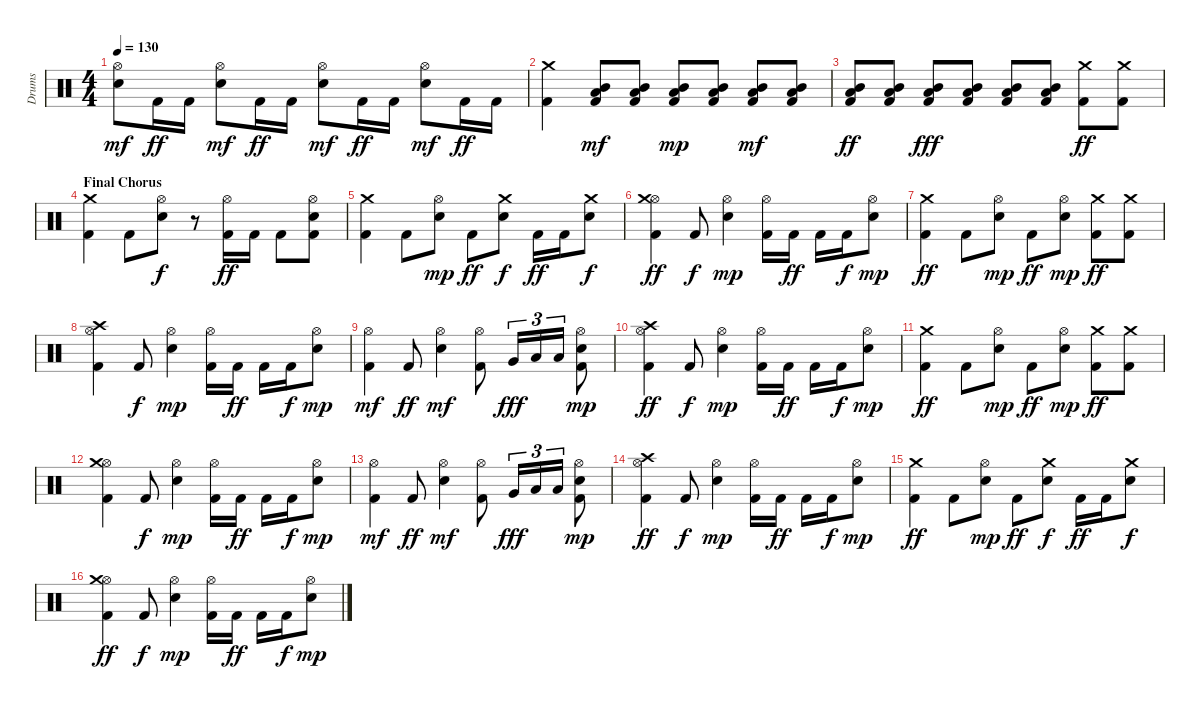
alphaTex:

\track ("Drums" "Drums") {instrument percussion}
\staff {score}
\articulation defaults
\ts (4 4)
\tempo 130
\clef neutral
\ks c
("Hi-Hat (open)" "Snare (hit) 2").8{dy mf} "Kick (hit) 2".16{dy ff} "Kick (hit) 2".16 ("Hi-Hat (open)" "Snare (hit) 2").8{dy mf} "Kick (hit) 2".16{dy ff} "Kick (hit) 2".16 ("Hi-Hat (open)" "Snare (hit) 2").8{dy mf} "Kick (hit) 2".16{dy ff} "Kick (hit) 2".16 ("Hi-Hat (open)" "Snare (hit) 2").8{dy mf} "Kick (hit) 2".16{dy ff} "Kick (hit) 2".16 |
("Kick (hit) 2" "Crash medium (hit)").4 ("Kick (hit) 2" "Mid Tom (hit)" "Low Floor Tom (hit)").8{dy mf} ("Kick (hit) 2" "Mid Tom (hit)" "Low Floor Tom (hit)").8 ("Kick (hit) 2" "Mid Tom (hit)" "Low Floor Tom (hit)").8{dy mp} ("Kick (hit) 2" "Mid Tom (hit)" "Low Floor Tom (hit)").8 ("Kick (hit) 2" "Mid Tom (hit)" "Low Floor Tom (hit)").8{dy mf} ("Kick (hit) 2" "Mid Tom (hit)" "Low Floor Tom (hit)").8 |
("Kick (hit) 2" "Mid Tom (hit)" "Low Floor Tom (hit)").8{dy ff} ("Kick (hit) 2" "Mid Tom (hit)" "Low Floor Tom (hit)").8 ("Kick (hit) 2" "Mid Tom (hit)" "Low Floor Tom (hit)").8{dy fff} ("Kick (hit) 2" "Mid Tom (hit)" "Low Floor Tom (hit)").8 ("Kick (hit) 2" "Mid Tom (hit)" "Low Floor Tom (hit)").8 ("Kick (hit) 2" "Mid Tom (hit)" "Low Floor Tom (hit)").8 ("Kick (hit) 2" "Crash medium (hit)").8{dy ff} ("Kick (hit) 2" "Crash medium (hit)").8 |
\section ("" "Final Chorus")
("Kick (hit) 2" "Crash medium (hit)").4 "Kick (hit) 2".8 ("Hi-Hat (open)" "Snare (hit) 2").8{dy f} r.8 ("Kick (hit) 2" "Hi-Hat (open)").16{dy ff} "Kick (hit) 2".16 "Kick (hit) 2".8 ("Kick (hit) 2" "Hi-Hat (open)" "Snare (hit) 2").8 |
("Kick (hit) 2" "Crash medium (hit)").4 "Kick (hit) 2".8 ("Hi-Hat (open)" "Snare (hit) 2").8{dy mp} "Kick (hit) 2".8{dy ff} ("Snare (hit) 2" "Crash medium (hit)").8{dy f} "Kick (hit) 2".16{dy ff} "Kick (hit) 2".16 ("Snare (hit) 2" "Crash medium (hit)").8{dy f} |
("Kick (hit) 2" "Hi-Hat (open)" "Crash medium (hit)").4{dy ff} "Kick (hit) 2".8{dy f} ("Hi-Hat (open)" "Snare (hit) 2").4{dy mp} ("Kick (hit) 2" "Hi-Hat (open)").16 "Kick (hit) 2".16{dy ff} "Kick (hit) 2".16 "Kick (hit) 2".16{dy f} ("Hi-Hat (open)" "Snare (hit) 2").8{dy mp} |
("Kick (hit) 2" "Crash medium (hit)").4{dy ff} "Kick (hit) 2".8 ("Hi-Hat (open)" "Snare (hit) 2").8{dy mp} "Kick (hit) 2".8{dy ff} ("Hi-Hat (open)" "Snare (hit) 2").8{dy mp} ("Kick (hit) 2" "Crash medium (hit)").8{dy ff} ("Kick (hit) 2" "Crash medium (hit)").8 |
("Kick (hit) 2" "Hi-Hat (open)" "Crash high (hit)").4 "Kick (hit) 2".8{dy f} ("Hi-Hat (open)" "Snare (hit) 2").4{dy mp} ("Kick (hit) 2" "Hi-Hat (open)").16 "Kick (hit) 2".16{dy ff} "Kick (hit) 2".16 "Kick (hit) 2".16{dy f} ("Hi-Hat (open)" "Snare (hit) 2").8{dy mp} |
("Kick (hit) 2" "Hi-Hat (open)").4{dy mf} "Kick (hit) 2".8{dy ff} ("Hi-Hat (open)" "Snare (hit) 2").4{dy mf} ("Kick (hit) 2" "Hi-Hat (open)").8 "Very Low Tom (hit)".16{tu (3 2) dy fff} "Low Floor Tom (hit)".16{tu (3 2)} "Low Floor Tom (hit)".16{tu (3 2)} ("Kick (hit) 2" "Hi-Hat (open)" "Snare (hit) 2").8{dy mp} |
("Kick (hit) 2" "Hi-Hat (open)" "Crash high (hit)").4{dy ff} "Kick (hit) 2".8{dy f} ("Hi-Hat (open)" "Snare (hit) 2").4{dy mp} ("Kick (hit) 2" "Hi-Hat (open)").16 "Kick (hit) 2".16{dy ff} "Kick (hit) 2".16 "Kick (hit) 2".16{dy f} ("Hi-Hat (open)" "Snare (hit) 2").8{dy mp} |
("Kick (hit) 2" "Crash medium (hit)").4{dy ff} "Kick (hit) 2".8 ("Hi-Hat (open)" "Snare (hit) 2").8{dy mp} "Kick (hit) 2".8{dy ff} ("Hi-Hat (open)" "Snare (hit) 2").8{dy mp} ("Kick (hit) 2" "Crash medium (hit)").8{dy ff} ("Kick (hit) 2" "Crash medium (hit)").8 |
("Kick (hit) 2" "Hi-Hat (open)" "Crash medium (hit)").4 "Kick (hit) 2".8{dy f} ("Hi-Hat (open)" "Snare (hit) 2").4{dy mp} ("Kick (hit) 2" "Hi-Hat (open)").16 "Kick (hit) 2".16{dy ff} "Kick (hit) 2".16 "Kick (hit) 2".16{dy f} ("Hi-Hat (open)" "Snare (hit) 2").8{dy mp} |
("Kick (hit) 2" "Hi-Hat (open)").4{dy mf} "Kick (hit) 2".8{dy ff} ("Hi-Hat (open)" "Snare (hit) 2").4{dy mf} ("Kick (hit) 2" "Hi-Hat (open)").8 "Very Low Tom (hit)".16{tu (3 2) dy fff} "Low Floor Tom (hit)".16{tu (3 2)} "Low Floor Tom (hit)".16{tu (3 2)} ("Kick (hit) 2" "Hi-Hat (open)" "Snare (hit) 2").8{dy mp} |
("Kick (hit) 2" "Hi-Hat (open)" "Crash high (hit)").4{dy ff} "Kick (hit) 2".8{dy f} ("Hi-Hat (open)" "Snare (hit) 2").4{dy mp} ("Kick (hit) 2" "Hi-Hat (open)").16 "Kick (hit) 2".16{dy ff} "Kick (hit) 2".16 "Kick (hit) 2".16{dy f} ("Hi-Hat (open)" "Snare (hit) 2").8{dy mp} |
("Kick (hit) 2" "Crash medium (hit)").4{dy ff} "Kick (hit) 2".8 ("Hi-Hat (open)" "Snare (hit) 2").8{dy mp} "Kick (hit) 2".8{dy ff} ("Snare (hit) 2" "Crash medium (hit)").8{dy f} "Kick (hit) 2".16{dy ff} "Kick (hit) 2".16 ("Snare (hit) 2" "Crash medium (hit)").8{dy f} |
("Kick (hit) 2" "Hi-Hat (open)" "Crash medium (hit)").4{dy ff} "Kick (hit) 2".8{dy f} ("Hi-Hat (open)" "Snare (hit) 2").4{dy mp} ("Kick (hit) 2" "Hi-Hat (open)").16 "Kick (hit) 2".16{dy ff} "Kick (hit) 2".16 "Kick (hit) 2".16{dy f} ("Hi-Hat (open)" "Snare (hit) 2").8{dy mp}
